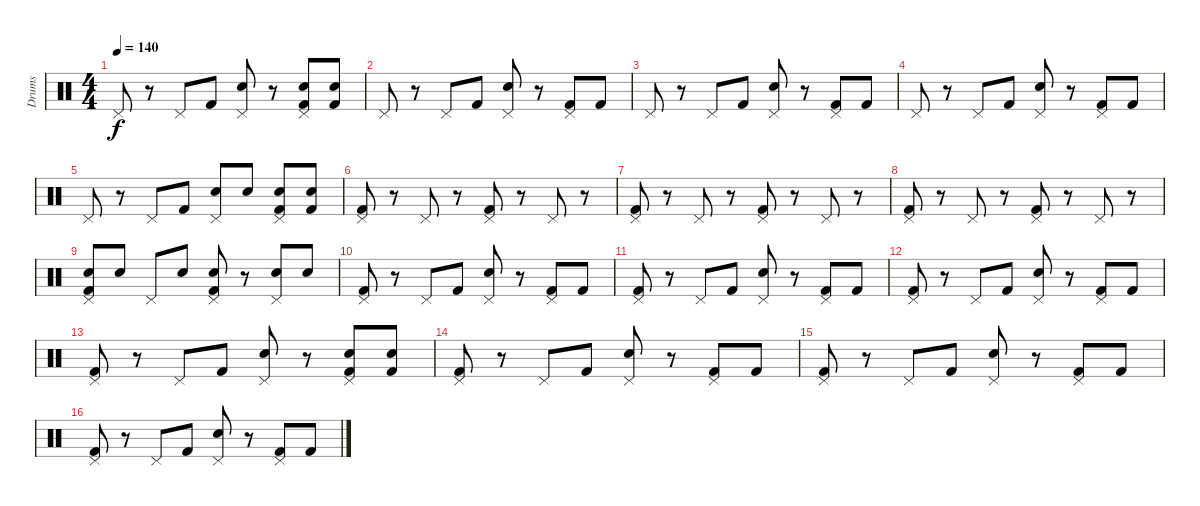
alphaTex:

\track ("Drums" "Drums") {instrument percussion}
\staff {score}
\articulation defaults
\ts (4 4)
\tempo 140
\clef neutral
\ks c "Pedal Hi-Hat (hit)".8{dy f}
r.8 "Pedal Hi-Hat (hit)".8 "Kick (hit) 2".8 ("Pedal Hi-Hat (hit)" "Snare (hit) 2").8 r.8 ("Pedal Hi-Hat (hit)" "Snare (hit) 2" "Kick (hit) 2").8 ("Snare (hit) 2" "Kick (hit) 2").8 |
"Pedal Hi-Hat (hit)".8 r.8 "Pedal Hi-Hat (hit)".8 "Kick (hit) 2".8 ("Pedal Hi-Hat (hit)" "Snare (hit) 2").8 r.8 ("Pedal Hi-Hat (hit)" "Kick (hit) 2").8 "Kick (hit) 2".8 |
"Pedal Hi-Hat (hit)".8 r.8 "Pedal Hi-Hat (hit)".8 "Kick (hit) 2".8 ("Pedal Hi-Hat (hit)" "Snare (hit) 2").8 r.8 ("Pedal Hi-Hat (hit)" "Kick (hit) 2").8 "Kick (hit) 2".8 |
"Pedal Hi-Hat (hit)".8 r.8 "Pedal Hi-Hat (hit)".8 "Kick (hit) 2".8 ("Pedal Hi-Hat (hit)" "Snare (hit) 2").8 r.8 ("Pedal Hi-Hat (hit)" "Kick (hit) 2").8 "Kick (hit) 2".8 |
"Pedal Hi-Hat (hit)".8 r.8 "Pedal Hi-Hat (hit)".8 "Kick (hit) 2".8 ("Pedal Hi-Hat (hit)" "Snare (hit) 2").8 "Snare (hit) 2".8 ("Pedal Hi-Hat (hit)" "Snare (hit) 2" "Kick (hit) 2").8 ("Snare (hit) 2" "Kick (hit) 2").8 |
("Pedal Hi-Hat (hit)" "Kick (hit) 2").8 r.8 "Pedal Hi-Hat (hit)".8 r.8 ("Pedal Hi-Hat (hit)" "Kick (hit) 2").8 r.8 "Pedal Hi-Hat (hit)".8 r.8 |
("Pedal Hi-Hat (hit)" "Kick (hit) 2").8 r.8 "Pedal Hi-Hat (hit)".8 r.8 ("Pedal Hi-Hat (hit)" "Kick (hit) 2").8 r.8 "Pedal Hi-Hat (hit)".8 r.8 |
("Pedal Hi-Hat (hit)" "Kick (hit) 2").8 r.8 "Pedal Hi-Hat (hit)".8 r.8 ("Pedal Hi-Hat (hit)" "Kick (hit) 2").8 r.8 "Pedal Hi-Hat (hit)".8 r.8 |
("Pedal Hi-Hat (hit)" "Snare (hit) 2" "Kick (hit) 2").8 "Snare (hit) 2".8 "Pedal Hi-Hat (hit)".8 "Snare (hit) 2".8 ("Pedal Hi-Hat (hit)" "Snare (hit) 2" "Kick (hit) 2").8 r.8 ("Pedal Hi-Hat (hit)" "Snare (hit) 2").8 "Snare (hit) 2".8 |
("Pedal Hi-Hat (hit)" "Kick (hit) 2").8 r.8 "Pedal Hi-Hat (hit)".8 "Kick (hit) 2".8 ("Pedal Hi-Hat (hit)" "Snare (hit) 2").8 r.8 ("Pedal Hi-Hat (hit)" "Kick (hit) 2").8 "Kick (hit) 2".8 |
("Pedal Hi-Hat (hit)" "Kick (hit) 2").8 r.8 "Pedal Hi-Hat (hit)".8 "Kick (hit) 2".8 ("Pedal Hi-Hat (hit)" "Snare (hit) 2").8 r.8 ("Pedal Hi-Hat (hit)" "Kick (hit) 2").8 "Kick (hit) 2".8 |
("Pedal Hi-Hat (hit)" "Kick (hit) 2").8 r.8 "Pedal Hi-Hat (hit)".8 "Kick (hit) 2".8 ("Pedal Hi-Hat (hit)" "Snare (hit) 2").8 r.8 ("Pedal Hi-Hat (hit)" "Kick (hit) 2").8 "Kick (hit) 2".8 |
("Pedal Hi-Hat (hit)" "Kick (hit) 2").8 r.8 "Pedal Hi-Hat (hit)".8 "Kick (hit) 2".8 ("Pedal Hi-Hat (hit)" "Snare (hit) 2").8 r.8 ("Pedal Hi-Hat (hit)" "Snare (hit) 2" "Kick (hit) 2").8 ("Snare (hit) 2" "Kick (hit) 2").8 |
("Pedal Hi-Hat (hit)" "Kick (hit) 2").8 r.8 "Pedal Hi-Hat (hit)".8 "Kick (hit) 2".8 ("Pedal Hi-Hat (hit)" "Snare (hit) 2").8 r.8 ("Pedal Hi-Hat (hit)" "Kick (hit) 2").8 "Kick (hit) 2".8 |
("Pedal Hi-Hat (hit)" "Kick (hit) 2").8 r.8 "Pedal Hi-Hat (hit)".8 "Kick (hit) 2".8 ("Pedal Hi-Hat (hit)" "Snare (hit) 2").8 r.8 ("Pedal Hi-Hat (hit)" "Kick (hit) 2").8 "Kick (hit) 2".8 |
("Pedal Hi-Hat (hit)" "Kick (hit) 2").8 r.8 "Pedal Hi-Hat (hit)".8 "Kick (hit) 2".8 ("Pedal Hi-Hat (hit)" "Snare (hit) 2").8 r.8 ("Pedal Hi-Hat (hit)" "Kick (hit) 2").8 "Kick (hit) 2".8
